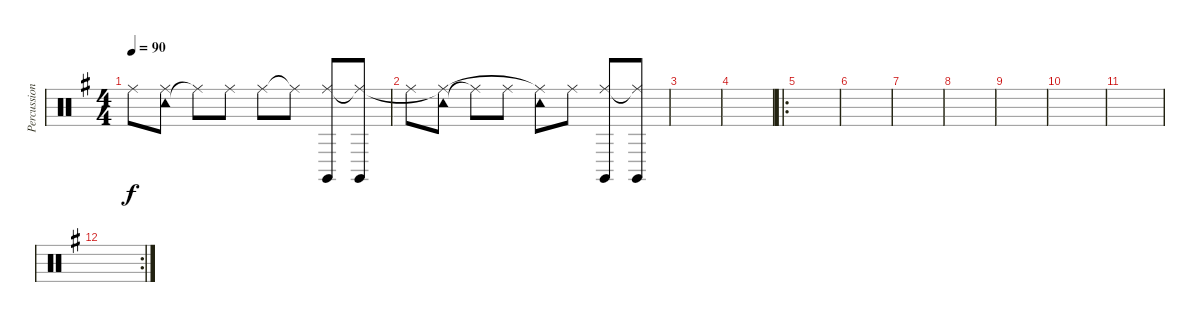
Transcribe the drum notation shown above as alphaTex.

\track ("Percussion" "Percussion") {instrument percussion}
\staff {score}
\articulation defaults
\ts (4 4)
\tempo 90
\clef neutral
\ks g "Ride (middle)".8{dy f}
("Tambourine (hit)" "Ride (middle)").8 "Ride (middle)"{t}.8 "Ride (middle)".8 "Ride (middle)".8 "Ride (middle)"{t}.8 ("Claves (hit)" "Ride (middle)").8 ("Claves (hit)" "Ride (middle)"{t}).8 |
"Ride (middle)".8 ("Tambourine (hit)" "Ride (middle)"{t}).8 "Ride (middle)"{t}.8 "Ride (middle)".8 ("Tambourine (hit)" "Ride (middle)"{t}).8 "Ride (middle)".8 ("Claves (hit)" "Ride (middle)").8 ("Claves (hit)" "Ride (middle)"{t}).8 |
|
|
\ro
|
|
|
|
|
|
|
\rc 2
